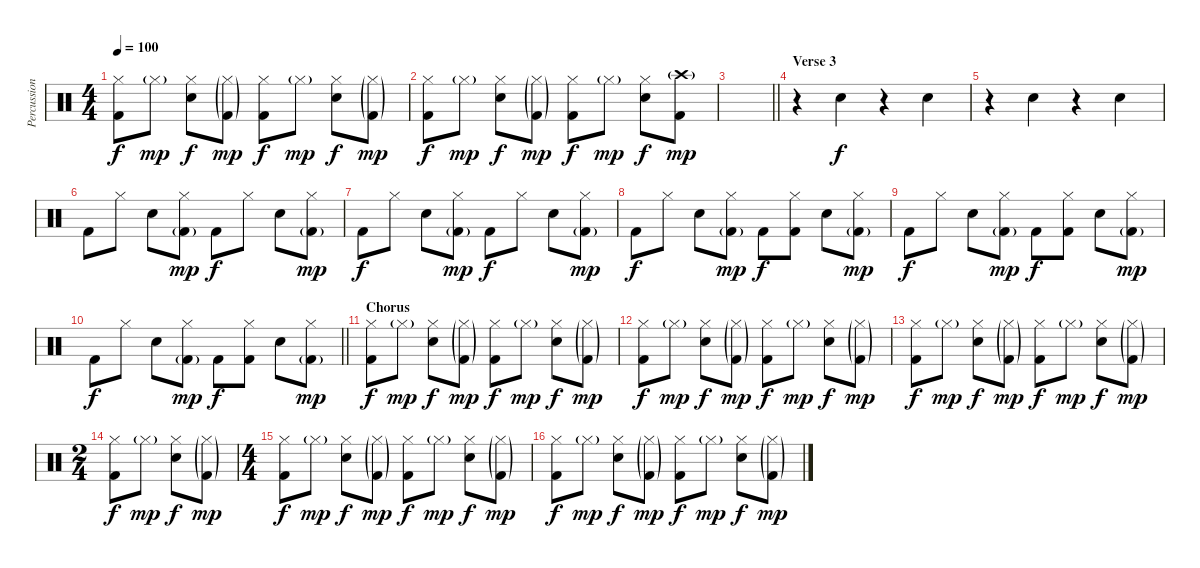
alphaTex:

\track ("Percussion" "Percussion") {instrument percussion}
\staff {score}
\articulation defaults
\ts (4 4)
\tempo 100
\clef neutral
\ks c
("Hi-Hat (closed)" "Kick (hit) 2").8{dy f} "Hi-Hat (closed)"{g}.8{dy mp} ("Hi-Hat (closed)" "Snare (hit) 2").8{dy f} ("Hi-Hat (closed)"{g} "Kick (hit) 2"{g}).8{dy mp} ("Hi-Hat (closed)" "Kick (hit) 2").8{dy f} "Hi-Hat (closed)"{g}.8{dy mp} ("Hi-Hat (closed)" "Snare (hit) 2").8{dy f} ("Hi-Hat (closed)"{g} "Kick (hit) 2"{g}).8{dy mp} |
("Hi-Hat (closed)" "Kick (hit) 2").8{dy f} "Hi-Hat (closed)"{g}.8{dy mp} ("Hi-Hat (closed)" "Snare (hit) 2").8{dy f} ("Hi-Hat (closed)"{g} "Kick (hit) 2"{g}).8{dy mp} ("Hi-Hat (closed)" "Kick (hit) 2").8{dy f} "Hi-Hat (closed)"{g}.8{dy mp} ("Hi-Hat (closed)" "Snare (hit) 2").8{dy f} ("Crash high (hit)"{g} "Kick (hit) 2").8{dy mp} |
\barLineRight lightlight
|
\section ("" "Verse 3")
r.4 "Snare (hit) 2".4{dy f} r.4 "Snare (hit) 2".4 |
r.4 "Snare (hit) 2".4 r.4 "Snare (hit) 2".4 |
"Kick (hit) 2".8 "Hi-Hat (closed)".8 "Snare (hit) 2".8 ("Hi-Hat (closed)" "Kick (hit) 2"{g}).8{dy mp} "Kick (hit) 2".8{dy f} "Hi-Hat (closed)".8 "Snare (hit) 2".8 ("Hi-Hat (closed)" "Kick (hit) 2"{g}).8{dy mp} |
"Kick (hit) 2".8{dy f} "Hi-Hat (closed)".8 "Snare (hit) 2".8 ("Hi-Hat (closed)" "Kick (hit) 2"{g}).8{dy mp} "Kick (hit) 2".8{dy f} "Hi-Hat (closed)".8 "Snare (hit) 2".8 ("Hi-Hat (closed)" "Kick (hit) 2"{g}).8{dy mp} |
"Kick (hit) 2".8{dy f} "Hi-Hat (closed)".8 "Snare (hit) 2".8 ("Hi-Hat (closed)" "Kick (hit) 2"{g}).8{dy mp} "Kick (hit) 2".8{dy f} ("Hi-Hat (closed)" "Kick (hit) 2").8 "Snare (hit) 2".8 ("Hi-Hat (closed)" "Kick (hit) 2"{g}).8{dy mp} |
"Kick (hit) 2".8{dy f} "Hi-Hat (closed)".8 "Snare (hit) 2".8 ("Hi-Hat (closed)" "Kick (hit) 2"{g}).8{dy mp} "Kick (hit) 2".8{dy f} ("Hi-Hat (closed)" "Kick (hit) 2").8 "Snare (hit) 2".8 ("Hi-Hat (closed)" "Kick (hit) 2"{g}).8{dy mp} |
\barLineRight lightlight "Kick (hit) 2".8{dy f} "Hi-Hat (closed)".8 "Snare (hit) 2".8
("Hi-Hat (closed)" "Kick (hit) 2"{g}).8{dy mp} "Kick (hit) 2".8{dy f} ("Hi-Hat (closed)" "Kick (hit) 2").8 "Snare (hit) 2".8 ("Hi-Hat (closed)" "Kick (hit) 2"{g}).8{dy mp} |
\section ("" "Chorus")
("Hi-Hat (closed)" "Kick (hit) 2").8{dy f} "Hi-Hat (closed)"{g}.8{dy mp} ("Hi-Hat (closed)" "Snare (hit) 2").8{dy f} ("Hi-Hat (closed)"{g} "Kick (hit) 2"{g}).8{dy mp} ("Hi-Hat (closed)" "Kick (hit) 2").8{dy f} "Hi-Hat (closed)"{g}.8{dy mp} ("Hi-Hat (closed)" "Snare (hit) 2").8{dy f} ("Hi-Hat (closed)"{g} "Kick (hit) 2"{g}).8{dy mp} |
("Hi-Hat (closed)" "Kick (hit) 2").8{dy f} "Hi-Hat (closed)"{g}.8{dy mp} ("Hi-Hat (closed)" "Snare (hit) 2").8{dy f} ("Hi-Hat (closed)"{g} "Kick (hit) 2"{g}).8{dy mp} ("Hi-Hat (closed)" "Kick (hit) 2").8{dy f} "Hi-Hat (closed)"{g}.8{dy mp} ("Hi-Hat (closed)" "Snare (hit) 2").8{dy f} ("Hi-Hat (closed)"{g} "Kick (hit) 2"{g}).8{dy mp} |
("Hi-Hat (closed)" "Kick (hit) 2").8{dy f} "Hi-Hat (closed)"{g}.8{dy mp} ("Hi-Hat (closed)" "Snare (hit) 2").8{dy f} ("Hi-Hat (closed)"{g} "Kick (hit) 2"{g}).8{dy mp} ("Hi-Hat (closed)" "Kick (hit) 2").8{dy f} "Hi-Hat (closed)"{g}.8{dy mp} ("Hi-Hat (closed)" "Snare (hit) 2").8{dy f} ("Hi-Hat (closed)"{g} "Kick (hit) 2"{g}).8{dy mp} |
\ts (2 4)
("Hi-Hat (closed)" "Kick (hit) 2").8{dy f} "Hi-Hat (closed)"{g}.8{dy mp} ("Hi-Hat (closed)" "Snare (hit) 2").8{dy f} ("Hi-Hat (closed)"{g} "Kick (hit) 2"{g}).8{dy mp} |
\ts (4 4)
("Hi-Hat (closed)" "Kick (hit) 2").8{dy f} "Hi-Hat (closed)"{g}.8{dy mp} ("Hi-Hat (closed)" "Snare (hit) 2").8{dy f} ("Hi-Hat (closed)"{g} "Kick (hit) 2"{g}).8{dy mp} ("Hi-Hat (closed)" "Kick (hit) 2").8{dy f} "Hi-Hat (closed)"{g}.8{dy mp} ("Hi-Hat (closed)" "Snare (hit) 2").8{dy f} ("Hi-Hat (closed)"{g} "Kick (hit) 2"{g}).8{dy mp} |
("Hi-Hat (closed)" "Kick (hit) 2").8{dy f} "Hi-Hat (closed)"{g}.8{dy mp} ("Hi-Hat (closed)" "Snare (hit) 2").8{dy f} ("Hi-Hat (closed)"{g} "Kick (hit) 2"{g}).8{dy mp} ("Hi-Hat (closed)" "Kick (hit) 2").8{dy f} "Hi-Hat (closed)"{g}.8{dy mp} ("Hi-Hat (closed)" "Snare (hit) 2").8{dy f} ("Hi-Hat (closed)"{g} "Kick (hit) 2"{g}).8{dy mp}
